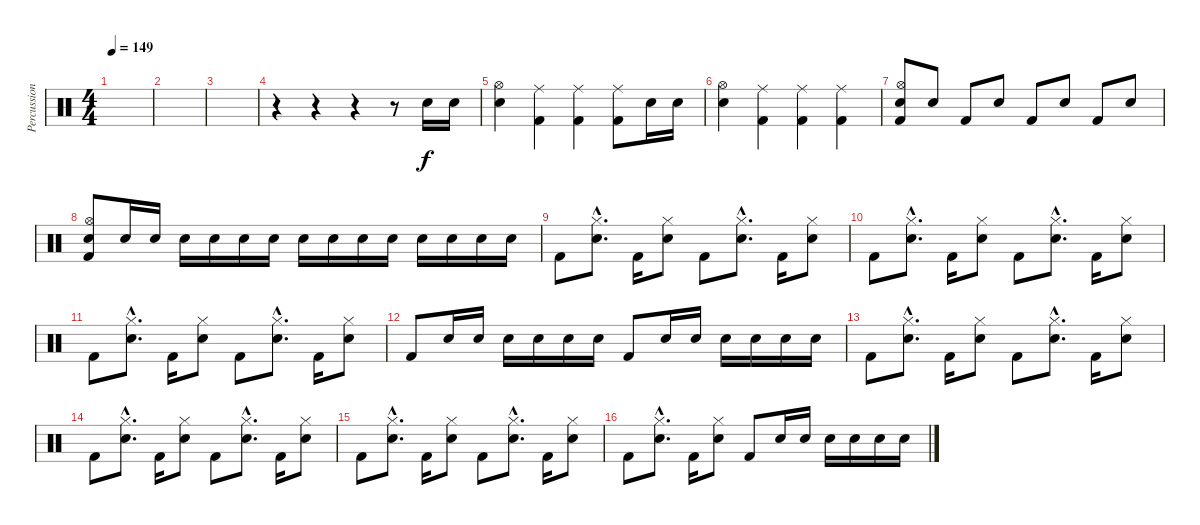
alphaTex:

\track ("Percussion" "Percussion") {instrument percussion}
\staff {score}
\articulation defaults
\ts (4 4)
\tempo 149
\clef neutral
\ks c
|
|
|
r.4 r.4 r.4 r.8 "Snare (hit) 2".16 "Snare (hit) 2".16 |
("Hi-Hat (open)" "Snare (hit) 2").4 ("Ride (middle)" "Kick (hit) 2").4 ("Ride (middle)" "Kick (hit) 2").4 ("Ride (middle)" "Kick (hit) 2").8 "Snare (hit) 2".16 "Snare (hit) 2".16 |
("Hi-Hat (open)" "Snare (hit) 2").4 ("Ride (middle)" "Kick (hit) 2").4 ("Ride (middle)" "Kick (hit) 2").4 ("Ride (middle)" "Kick (hit) 2").4 |
("Hi-Hat (open)" "Kick (hit) 2" "Snare (hit) 2").8 "Snare (hit) 2".8 "Kick (hit) 2".8 "Snare (hit) 2".8 "Kick (hit) 2".8 "Snare (hit) 2".8 "Kick (hit) 2".8 "Snare (hit) 2".8 |
("Hi-Hat (open)" "Snare (hit) 2" "Kick (hit) 2").8 "Snare (hit) 2".16 "Snare (hit) 2".16 "Snare (hit) 2".16 "Snare (hit) 2".16 "Snare (hit) 2".16 "Snare (hit) 2".16 "Snare (hit) 2".16 "Snare (hit) 2".16 "Snare (hit) 2".16 "Snare (hit) 2".16 "Snare (hit) 2".16 "Snare (hit) 2".16 "Snare (hit) 2".16 "Snare (hit) 2".16 |
"Kick (hit) 2".8 ("Snare (hit) 2"{hac} "Hi-Hat (closed)"{hac}).8{d} "Kick (hit) 2".16 ("Snare (hit) 2" "Hi-Hat (closed)").8 "Kick (hit) 2".8 ("Snare (hit) 2"{hac} "Hi-Hat (closed)"{hac}).8{d} "Kick (hit) 2".16 ("Snare (hit) 2" "Hi-Hat (closed)").8 |
"Kick (hit) 2".8 ("Snare (hit) 2"{hac} "Hi-Hat (closed)"{hac}).8{d} "Kick (hit) 2".16 ("Snare (hit) 2" "Hi-Hat (closed)").8 "Kick (hit) 2".8 ("Snare (hit) 2"{hac} "Hi-Hat (closed)"{hac}).8{d} "Kick (hit) 2".16 ("Snare (hit) 2" "Hi-Hat (closed)").8 |
"Kick (hit) 2".8 ("Snare (hit) 2"{hac} "Hi-Hat (closed)"{hac}).8{d} "Kick (hit) 2".16 ("Snare (hit) 2" "Hi-Hat (closed)").8 "Kick (hit) 2".8 ("Snare (hit) 2"{hac} "Hi-Hat (closed)"{hac}).8{d} "Kick (hit) 2".16 ("Snare (hit) 2" "Hi-Hat (closed)").8 |
"Kick (hit) 2".8 "Snare (hit) 2".16 "Snare (hit) 2".16 "Snare (hit) 2".16 "Snare (hit) 2".16 "Snare (hit) 2".16 "Snare (hit) 2".16 "Kick (hit) 2".8 "Snare (hit) 2".16 "Snare (hit) 2".16 "Snare (hit) 2".16 "Snare (hit) 2".16 "Snare (hit) 2".16 "Snare (hit) 2".16 |
"Kick (hit) 2".8 ("Snare (hit) 2"{hac} "Hi-Hat (closed)"{hac}).8{d} "Kick (hit) 2".16 ("Snare (hit) 2" "Hi-Hat (closed)").8 "Kick (hit) 2".8 ("Snare (hit) 2"{hac} "Hi-Hat (closed)"{hac}).8{d} "Kick (hit) 2".16 ("Snare (hit) 2" "Hi-Hat (closed)").8 |
"Kick (hit) 2".8 ("Snare (hit) 2"{hac} "Hi-Hat (closed)"{hac}).8{d} "Kick (hit) 2".16 ("Snare (hit) 2" "Hi-Hat (closed)").8 "Kick (hit) 2".8 ("Snare (hit) 2"{hac} "Hi-Hat (closed)"{hac}).8{d} "Kick (hit) 2".16 ("Snare (hit) 2" "Hi-Hat (closed)").8 |
"Kick (hit) 2".8 ("Snare (hit) 2"{hac} "Hi-Hat (closed)"{hac}).8{d} "Kick (hit) 2".16 ("Snare (hit) 2" "Hi-Hat (closed)").8 "Kick (hit) 2".8 ("Snare (hit) 2"{hac} "Hi-Hat (closed)"{hac}).8{d} "Kick (hit) 2".16 ("Snare (hit) 2" "Hi-Hat (closed)").8 |
"Kick (hit) 2".8 ("Snare (hit) 2"{hac} "Hi-Hat (closed)"{hac}).8{d} "Kick (hit) 2".16 ("Snare (hit) 2" "Hi-Hat (closed)").8 "Kick (hit) 2".8 "Snare (hit) 2".16 "Snare (hit) 2".16 "Snare (hit) 2".16 "Snare (hit) 2".16 "Snare (hit) 2".16 "Snare (hit) 2".16
